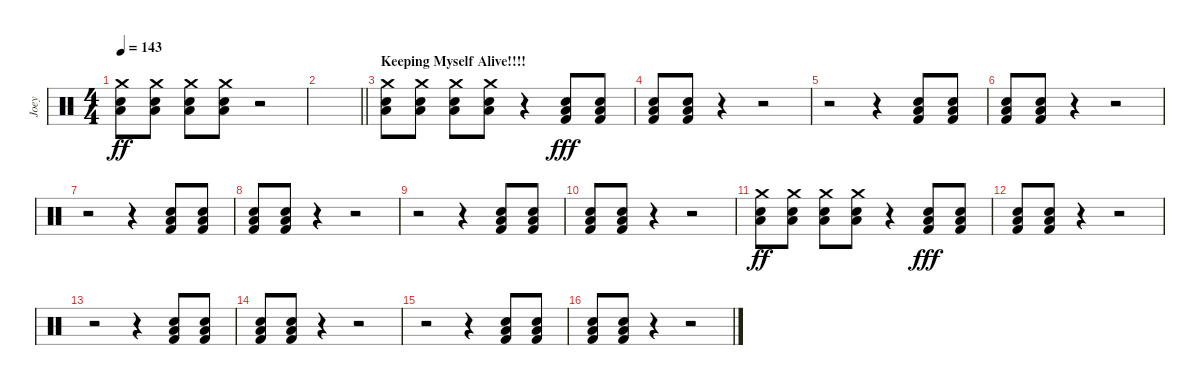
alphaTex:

\track ("Joey" "Joey") {instrument percussion}
\staff {score}
\articulation defaults
\ts (4 4)
\tempo 143
\clef neutral
\ks c
("Crash medium (hit)" "Electric Snare (hit)" "Low Tom (hit)").8{dy ff} ("Crash medium (hit)" "Electric Snare (hit)" "Low Tom (hit)").8 ("Crash medium (hit)" "Electric Snare (hit)" "Low Tom (hit)").8 ("Crash medium (hit)" "Electric Snare (hit)" "Low Tom (hit)").8 r.2 |
\barLineRight lightlight
|
\section ("" "Keeping Myself Alive!!!!")
("Crash medium (hit)" "Electric Snare (hit)" "Low Tom (hit)").8 ("Crash medium (hit)" "Electric Snare (hit)" "Low Tom (hit)").8 ("Crash medium (hit)" "Electric Snare (hit)" "Low Tom (hit)").8 ("Crash medium (hit)" "Electric Snare (hit)" "Low Tom (hit)").8 r.4 ("Low Tom (hit)" "Electric Snare (hit)" "Kick (hit) 2").8{dy fff} ("Low Tom (hit)" "Electric Snare (hit)" "Kick (hit) 2").8 |
("Low Tom (hit)" "Electric Snare (hit)" "Kick (hit) 2").8 ("Low Tom (hit)" "Electric Snare (hit)" "Kick (hit) 2").8 r.4 r.2 |
r.2 r.4 ("Low Tom (hit)" "Electric Snare (hit)" "Kick (hit) 2").8 ("Low Tom (hit)" "Electric Snare (hit)" "Kick (hit) 2").8 |
("Low Tom (hit)" "Electric Snare (hit)" "Kick (hit) 2").8 ("Low Tom (hit)" "Electric Snare (hit)" "Kick (hit) 2").8 r.4 r.2 |
r.2 r.4 ("Low Tom (hit)" "Electric Snare (hit)" "Kick (hit) 2").8 ("Low Tom (hit)" "Electric Snare (hit)" "Kick (hit) 2").8 |
("Low Tom (hit)" "Electric Snare (hit)" "Kick (hit) 2").8 ("Low Tom (hit)" "Electric Snare (hit)" "Kick (hit) 2").8 r.4 r.2 |
r.2 r.4 ("Low Tom (hit)" "Electric Snare (hit)" "Kick (hit) 2").8 ("Low Tom (hit)" "Electric Snare (hit)" "Kick (hit) 2").8 |
("Low Tom (hit)" "Electric Snare (hit)" "Kick (hit) 2").8 ("Low Tom (hit)" "Electric Snare (hit)" "Kick (hit) 2").8 r.4 r.2 |
("Crash medium (hit)" "Electric Snare (hit)" "Low Tom (hit)").8{dy ff} ("Crash medium (hit)" "Electric Snare (hit)" "Low Tom (hit)").8 ("Crash medium (hit)" "Electric Snare (hit)" "Low Tom (hit)").8 ("Crash medium (hit)" "Electric Snare (hit)" "Low Tom (hit)").8 r.4 ("Low Tom (hit)" "Electric Snare (hit)" "Kick (hit) 2").8{dy fff} ("Low Tom (hit)" "Electric Snare (hit)" "Kick (hit) 2").8 |
("Low Tom (hit)" "Electric Snare (hit)" "Kick (hit) 2").8 ("Low Tom (hit)" "Electric Snare (hit)" "Kick (hit) 2").8 r.4 r.2 |
r.2 r.4 ("Low Tom (hit)" "Electric Snare (hit)" "Kick (hit) 2").8 ("Low Tom (hit)" "Electric Snare (hit)" "Kick (hit) 2").8 |
("Low Tom (hit)" "Electric Snare (hit)" "Kick (hit) 2").8 ("Low Tom (hit)" "Electric Snare (hit)" "Kick (hit) 2").8 r.4 r.2 |
r.2 r.4 ("Low Tom (hit)" "Electric Snare (hit)" "Kick (hit) 2").8 ("Low Tom (hit)" "Electric Snare (hit)" "Kick (hit) 2").8 |
("Low Tom (hit)" "Electric Snare (hit)" "Kick (hit) 2").8 ("Low Tom (hit)" "Electric Snare (hit)" "Kick (hit) 2").8 r.4 r.2
